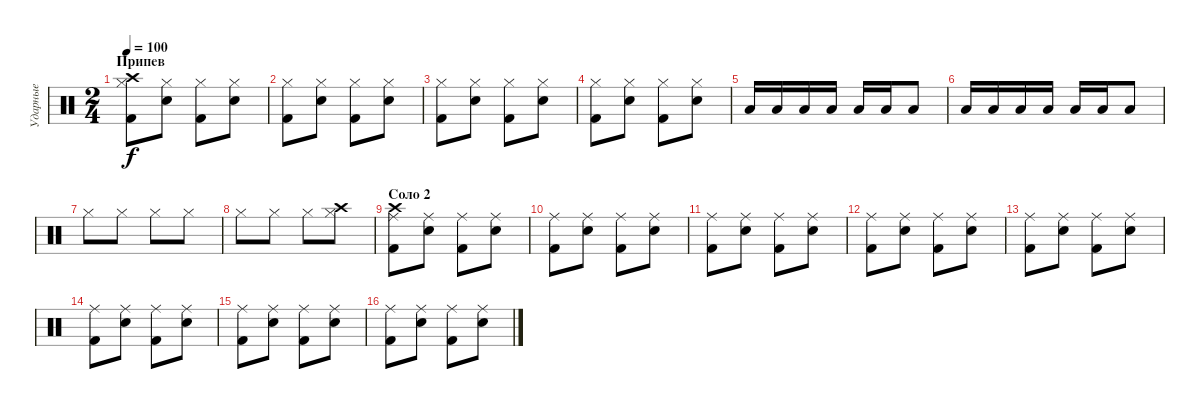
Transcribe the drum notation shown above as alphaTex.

\track ("Ударные" "Ударные") {instrument percussion}
\staff {score}
\articulation defaults
\ts (2 4)
\section ("" "Припев")
\tempo 100
\clef neutral
\ks c
("Hi-Hat (closed)" "Kick (hit) 2" "Crash high (hit)").8{dy f} ("Hi-Hat (closed)" "Electric Snare (hit)").8 ("Hi-Hat (closed)" "Kick (hit) 2").8 ("Hi-Hat (closed)" "Electric Snare (hit)").8 |
("Hi-Hat (closed)" "Kick (hit) 2").8 ("Hi-Hat (closed)" "Electric Snare (hit)").8 ("Hi-Hat (closed)" "Kick (hit) 2").8 ("Hi-Hat (closed)" "Electric Snare (hit)").8 |
("Hi-Hat (closed)" "Kick (hit) 2").8 ("Hi-Hat (closed)" "Electric Snare (hit)").8 ("Hi-Hat (closed)" "Kick (hit) 2").8 ("Hi-Hat (closed)" "Electric Snare (hit)").8 |
("Hi-Hat (closed)" "Kick (hit) 2").8 ("Hi-Hat (closed)" "Electric Snare (hit)").8 ("Hi-Hat (closed)" "Kick (hit) 2").8 ("Hi-Hat (closed)" "Electric Snare (hit)").8 |
"Low Tom (hit)".16 "Low Tom (hit)".16 "Low Tom (hit)".16 "Low Tom (hit)".16 "Low Tom (hit)".16 "Low Tom (hit)".16 "Low Tom (hit)".8 |
"Low Tom (hit)".16 "Low Tom (hit)".16 "Low Tom (hit)".16 "Low Tom (hit)".16 "Low Tom (hit)".16 "Low Tom (hit)".16 "Low Tom (hit)".8 |
"Hi-Hat (closed)".8 "Hi-Hat (closed)".8 "Hi-Hat (closed)".8 "Hi-Hat (closed)".8 |
"Hi-Hat (closed)".8 "Hi-Hat (closed)".8 "Hi-Hat (closed)".8 ("Hi-Hat (closed)" "Crash high (hit)").8 |
\section ("" "Соло 2")
("Ride (middle)" "Kick (hit) 2" "Crash high (hit)").8 ("Ride (middle)" "Electric Snare (hit)").8 ("Ride (middle)" "Kick (hit) 2").8 ("Ride (middle)" "Electric Snare (hit)").8 |
("Ride (middle)" "Kick (hit) 2").8 ("Ride (middle)" "Electric Snare (hit)").8 ("Ride (middle)" "Kick (hit) 2").8 ("Ride (middle)" "Electric Snare (hit)").8 |
("Ride (middle)" "Kick (hit) 2").8 ("Ride (middle)" "Electric Snare (hit)").8 ("Ride (middle)" "Kick (hit) 2").8 ("Ride (middle)" "Electric Snare (hit)").8 |
("Ride (middle)" "Kick (hit) 2").8 ("Ride (middle)" "Electric Snare (hit)").8 ("Ride (middle)" "Kick (hit) 2").8 ("Ride (middle)" "Electric Snare (hit)").8 |
("Ride (middle)" "Kick (hit) 2").8 ("Ride (middle)" "Electric Snare (hit)").8 ("Ride (middle)" "Kick (hit) 2").8 ("Ride (middle)" "Electric Snare (hit)").8 |
("Ride (middle)" "Kick (hit) 2").8 ("Ride (middle)" "Electric Snare (hit)").8 ("Ride (middle)" "Kick (hit) 2").8 ("Ride (middle)" "Electric Snare (hit)").8 |
("Ride (middle)" "Kick (hit) 2").8 ("Ride (middle)" "Electric Snare (hit)").8 ("Ride (middle)" "Kick (hit) 2").8 ("Ride (middle)" "Electric Snare (hit)").8 |
("Ride (middle)" "Kick (hit) 2").8 ("Ride (middle)" "Electric Snare (hit)").8 ("Ride (middle)" "Kick (hit) 2").8 ("Ride (middle)" "Electric Snare (hit)").8
